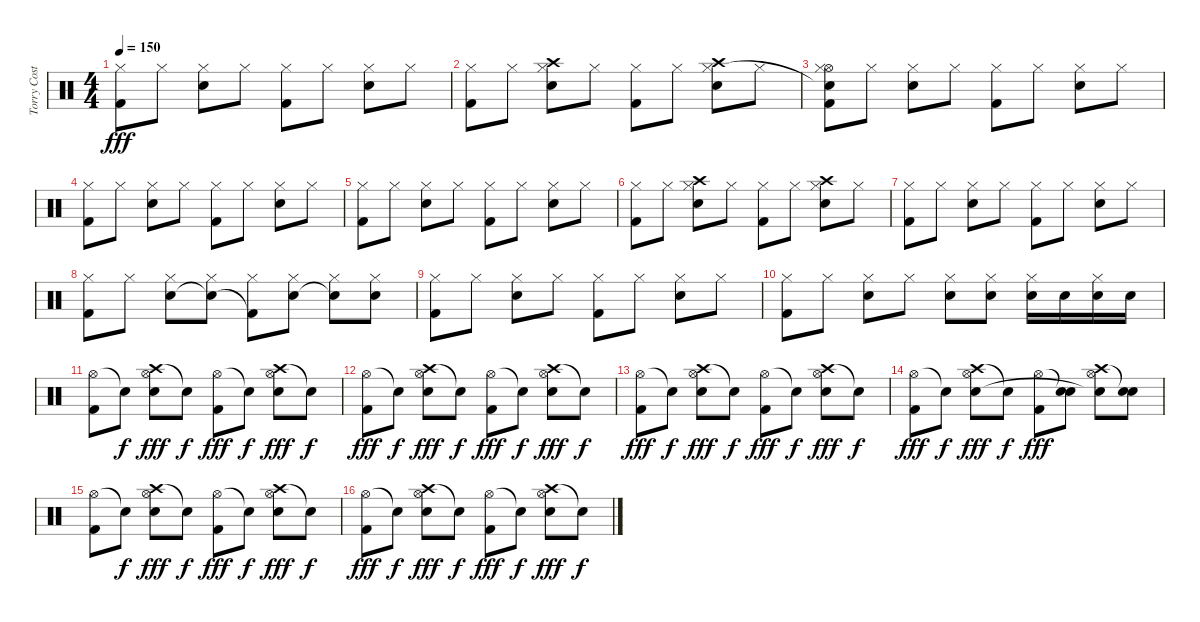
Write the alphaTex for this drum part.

\track ("Torry Costellano" "Torry Cost") {instrument percussion}
\staff {score}
\articulation defaults
\ts (4 4)
\tempo 150
\clef neutral
\ks c
("Hi-Hat (closed)" "Kick (hit) 2").8{dy fff} "Hi-Hat (closed)".8 ("Hi-Hat (closed)" "Electric Snare (hit)").8 "Hi-Hat (closed)".8 ("Hi-Hat (closed)" "Kick (hit) 2").8 "Hi-Hat (closed)".8 ("Hi-Hat (closed)" "Electric Snare (hit)").8 "Hi-Hat (closed)".8 |
("Hi-Hat (closed)" "Kick (hit) 2").8 "Hi-Hat (closed)".8 ("Crash high (hit)" "Hi-Hat (closed)" "Electric Snare (hit)").8 "Hi-Hat (closed)".8 ("Hi-Hat (closed)" "Kick (hit) 2").8 "Hi-Hat (closed)".8 ("Crash high (hit)" "Hi-Hat (closed)" "Electric Snare (hit)").8 "Hi-Hat (closed)".8 |
("Hi-Hat (open)" "Snare (hit)"{t} "Hi-Hat (closed)" "Kick (hit) 2").8 "Hi-Hat (closed)".8 ("Hi-Hat (closed)" "Electric Snare (hit)").8 "Hi-Hat (closed)".8 ("Hi-Hat (closed)" "Kick (hit) 2").8 "Hi-Hat (closed)".8 ("Hi-Hat (closed)" "Electric Snare (hit)").8 "Hi-Hat (closed)".8 |
("Hi-Hat (closed)" "Kick (hit) 2").8 "Hi-Hat (closed)".8 ("Hi-Hat (closed)" "Electric Snare (hit)").8 "Hi-Hat (closed)".8 ("Hi-Hat (closed)" "Kick (hit) 2").8 "Hi-Hat (closed)".8 ("Hi-Hat (closed)" "Electric Snare (hit)").8 "Hi-Hat (closed)".8 |
("Hi-Hat (closed)" "Kick (hit) 2").8 "Hi-Hat (closed)".8 ("Hi-Hat (closed)" "Electric Snare (hit)").8 "Hi-Hat (closed)".8 ("Hi-Hat (closed)" "Kick (hit) 2").8 "Hi-Hat (closed)".8 ("Hi-Hat (closed)" "Electric Snare (hit)").8 "Hi-Hat (closed)".8 |
("Hi-Hat (closed)" "Kick (hit) 2").8 "Hi-Hat (closed)".8 ("Crash high (hit)" "Hi-Hat (closed)" "Electric Snare (hit)").8 "Hi-Hat (closed)".8 ("Hi-Hat (closed)" "Kick (hit) 2").8 "Hi-Hat (closed)".8 ("Crash high (hit)" "Hi-Hat (closed)" "Electric Snare (hit)").8 "Hi-Hat (closed)".8 |
("Hi-Hat (closed)" "Kick (hit) 2").8 "Hi-Hat (closed)".8 ("Hi-Hat (closed)" "Electric Snare (hit)").8 "Hi-Hat (closed)".8 ("Hi-Hat (closed)" "Kick (hit) 2").8 "Hi-Hat (closed)".8 ("Hi-Hat (closed)" "Electric Snare (hit)").8 "Hi-Hat (closed)".8 |
("Hi-Hat (closed)" "Kick (hit) 2").8 "Hi-Hat (closed)".8 ("Hi-Hat (closed)" "Electric Snare (hit)").8 ("Hi-Hat (closed)" "Electric Snare (hit)"{t}).8 ("Hi-Hat (closed)" "Kick (hit) 2"{t}).8 ("Hi-Hat (closed)" "Electric Snare (hit)").8 ("Hi-Hat (closed)" "Electric Snare (hit)"{t}).8 ("Hi-Hat (closed)" "Electric Snare (hit)").8 |
("Hi-Hat (closed)" "Kick (hit) 2").8 "Hi-Hat (closed)".8 ("Hi-Hat (closed)" "Electric Snare (hit)").8 "Hi-Hat (closed)".8 ("Hi-Hat (closed)" "Kick (hit) 2").8 "Hi-Hat (closed)".8 ("Hi-Hat (closed)" "Electric Snare (hit)").8 "Hi-Hat (closed)".8 |
("Hi-Hat (closed)" "Kick (hit) 2").8 "Hi-Hat (closed)".8 ("Hi-Hat (closed)" "Electric Snare (hit)").8 "Hi-Hat (closed)".8 ("Hi-Hat (closed)" "Electric Snare (hit)").8 ("Hi-Hat (closed)" "Electric Snare (hit)").8 ("Hi-Hat (closed)" "Electric Snare (hit)").16 "Electric Snare (hit)".16 ("Hi-Hat (closed)" "Electric Snare (hit)").16 "Electric Snare (hit)".16 |
("Hi-Hat (open)" "Kick (hit) 2").8 "Snare (hit)"{t}.8{dy f} ("Crash high (hit)" "Hi-Hat (open)" "Electric Snare (hit)").8{dy fff} "Snare (hit)"{t}.8{dy f} ("Hi-Hat (open)" "Kick (hit) 2").8{dy fff} "Snare (hit)"{t}.8{dy f} ("Crash high (hit)" "Hi-Hat (open)" "Electric Snare (hit)").8{dy fff} "Snare (hit)"{t}.8{dy f} |
("Hi-Hat (open)" "Kick (hit) 2").8{dy fff} "Snare (hit)"{t}.8{dy f} ("Crash high (hit)" "Hi-Hat (open)" "Electric Snare (hit)").8{dy fff} "Snare (hit)"{t}.8{dy f} ("Hi-Hat (open)" "Kick (hit) 2").8{dy fff} "Snare (hit)"{t}.8{dy f} ("Crash high (hit)" "Hi-Hat (open)" "Electric Snare (hit)").8{dy fff} "Snare (hit)"{t}.8{dy f} |
("Hi-Hat (open)" "Kick (hit) 2").8{dy fff} "Snare (hit)"{t}.8{dy f} ("Crash high (hit)" "Hi-Hat (open)" "Electric Snare (hit)").8{dy fff} "Snare (hit)"{t}.8{dy f} ("Hi-Hat (open)" "Kick (hit) 2").8{dy fff} "Snare (hit)"{t}.8{dy f} ("Crash high (hit)" "Hi-Hat (open)" "Electric Snare (hit)").8{dy fff} "Snare (hit)"{t}.8{dy f} |
("Hi-Hat (open)" "Kick (hit) 2").8{dy fff} "Snare (hit)"{t}.8{dy f} ("Crash high (hit)" "Hi-Hat (open)" "Electric Snare (hit)").8{dy fff} "Snare (hit)"{t}.8{dy f} ("Hi-Hat (open)" "Kick (hit) 2").8{dy fff} ("Snare (hit)"{t} "Electric Snare (hit)").8 ("Crash high (hit)" "Hi-Hat (open)" "Electric Snare (hit)"{t}).8 ("Snare (hit)"{t} "Electric Snare (hit)").8 |
("Hi-Hat (open)" "Kick (hit) 2").8 "Snare (hit)"{t}.8{dy f} ("Crash high (hit)" "Hi-Hat (open)" "Electric Snare (hit)").8{dy fff} "Snare (hit)"{t}.8{dy f} ("Hi-Hat (open)" "Kick (hit) 2").8{dy fff} "Snare (hit)"{t}.8{dy f} ("Crash high (hit)" "Hi-Hat (open)" "Electric Snare (hit)").8{dy fff} "Snare (hit)"{t}.8{dy f} |
("Hi-Hat (open)" "Kick (hit) 2").8{dy fff} "Snare (hit)"{t}.8{dy f} ("Crash high (hit)" "Hi-Hat (open)" "Electric Snare (hit)").8{dy fff} "Snare (hit)"{t}.8{dy f} ("Hi-Hat (open)" "Kick (hit) 2").8{dy fff} "Snare (hit)"{t}.8{dy f} ("Crash high (hit)" "Hi-Hat (open)" "Electric Snare (hit)").8{dy fff} "Snare (hit)"{t}.8{dy f}
